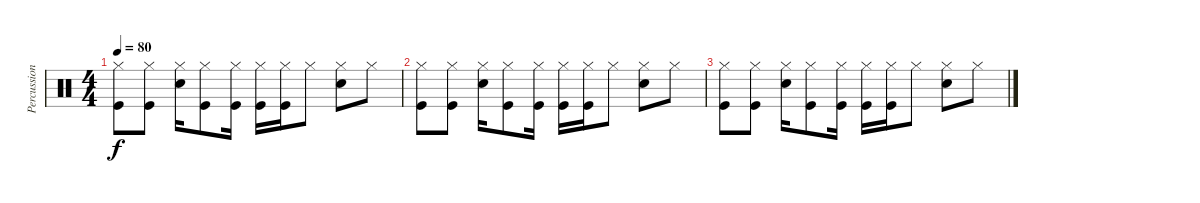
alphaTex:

\track ("Percussion" "Percussion") {instrument percussion}
\staff {score}
\articulation defaults
\ts (4 4)
\tempo 80
\clef neutral
\ks c
("Hi-Hat (closed)" "Kick (hit)").8{dy f} ("Hi-Hat (closed)" "Kick (hit)").8 ("Hi-Hat (closed)" "Snare (hit) 2").16 ("Hi-Hat (closed)" "Kick (hit)").8 ("Hi-Hat (closed)" "Kick (hit)").16 ("Hi-Hat (closed)" "Kick (hit)").16 ("Hi-Hat (closed)" "Kick (hit)").16 "Hi-Hat (closed)".8 ("Hi-Hat (closed)" "Snare (hit) 2").8 "Hi-Hat (closed)".8 |
("Hi-Hat (closed)" "Kick (hit)").8 ("Hi-Hat (closed)" "Kick (hit)").8 ("Hi-Hat (closed)" "Snare (hit) 2").16 ("Hi-Hat (closed)" "Kick (hit)").8 ("Hi-Hat (closed)" "Kick (hit)").16 ("Hi-Hat (closed)" "Kick (hit)").16 ("Hi-Hat (closed)" "Kick (hit)").16 "Hi-Hat (closed)".8 ("Hi-Hat (closed)" "Snare (hit) 2").8 "Hi-Hat (closed)".8 |
("Hi-Hat (closed)" "Kick (hit)").8 ("Hi-Hat (closed)" "Kick (hit)").8 ("Hi-Hat (closed)" "Snare (hit) 2").16 ("Hi-Hat (closed)" "Kick (hit)").8 ("Hi-Hat (closed)" "Kick (hit)").16 ("Hi-Hat (closed)" "Kick (hit)").16 ("Hi-Hat (closed)" "Kick (hit)").16 "Hi-Hat (closed)".8 ("Hi-Hat (closed)" "Snare (hit) 2").8 "Hi-Hat (closed)".8
